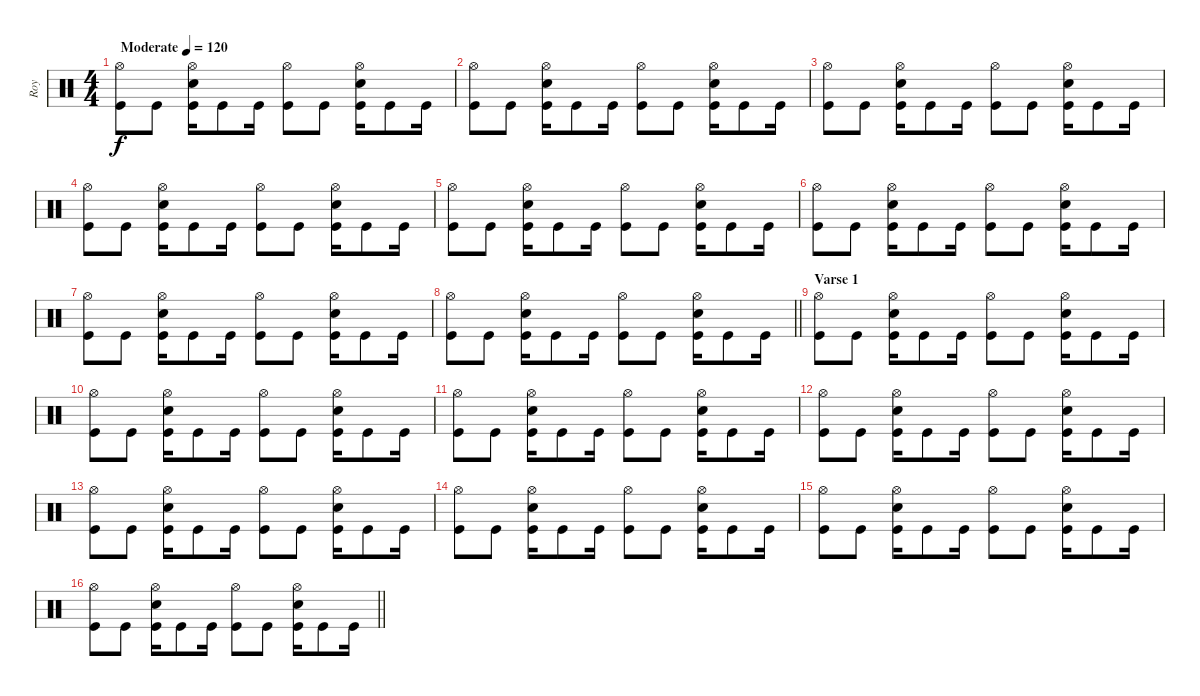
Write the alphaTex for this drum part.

\track ("Roy" "Roy") {instrument percussion}
\staff {score}
\articulation defaults
\ts (4 4)
\tempo (120 "Moderate")
\clef neutral
\ks c
("Hi-Hat (open)" "Kick (hit)").8{dy f} "Kick (hit)".8 ("Hi-Hat (open)" "Electric Snare (hit)" "Kick (hit)").16 "Kick (hit)".8 "Kick (hit)".16 ("Hi-Hat (open)" "Kick (hit)").8 "Kick (hit)".8 ("Hi-Hat (open)" "Electric Snare (hit)" "Kick (hit)").16 "Kick (hit)".8 "Kick (hit)".16 |
("Hi-Hat (open)" "Kick (hit)").8 "Kick (hit)".8 ("Hi-Hat (open)" "Electric Snare (hit)" "Kick (hit)").16 "Kick (hit)".8 "Kick (hit)".16 ("Hi-Hat (open)" "Kick (hit)").8 "Kick (hit)".8 ("Hi-Hat (open)" "Electric Snare (hit)" "Kick (hit)").16 "Kick (hit)".8 "Kick (hit)".16 |
("Hi-Hat (open)" "Kick (hit)").8 "Kick (hit)".8 ("Hi-Hat (open)" "Electric Snare (hit)" "Kick (hit)").16 "Kick (hit)".8 "Kick (hit)".16 ("Hi-Hat (open)" "Kick (hit)").8 "Kick (hit)".8 ("Hi-Hat (open)" "Electric Snare (hit)" "Kick (hit)").16 "Kick (hit)".8 "Kick (hit)".16 |
("Hi-Hat (open)" "Kick (hit)").8 "Kick (hit)".8 ("Hi-Hat (open)" "Electric Snare (hit)" "Kick (hit)").16 "Kick (hit)".8 "Kick (hit)".16 ("Hi-Hat (open)" "Kick (hit)").8 "Kick (hit)".8 ("Hi-Hat (open)" "Electric Snare (hit)" "Kick (hit)").16 "Kick (hit)".8 "Kick (hit)".16 |
("Hi-Hat (open)" "Kick (hit)").8 "Kick (hit)".8 ("Hi-Hat (open)" "Electric Snare (hit)" "Kick (hit)").16 "Kick (hit)".8 "Kick (hit)".16 ("Hi-Hat (open)" "Kick (hit)").8 "Kick (hit)".8 ("Hi-Hat (open)" "Electric Snare (hit)" "Kick (hit)").16 "Kick (hit)".8 "Kick (hit)".16 |
("Hi-Hat (open)" "Kick (hit)").8 "Kick (hit)".8 ("Hi-Hat (open)" "Electric Snare (hit)" "Kick (hit)").16 "Kick (hit)".8 "Kick (hit)".16 ("Hi-Hat (open)" "Kick (hit)").8 "Kick (hit)".8 ("Hi-Hat (open)" "Electric Snare (hit)" "Kick (hit)").16 "Kick (hit)".8 "Kick (hit)".16 |
("Hi-Hat (open)" "Kick (hit)").8 "Kick (hit)".8 ("Hi-Hat (open)" "Electric Snare (hit)" "Kick (hit)").16 "Kick (hit)".8 "Kick (hit)".16 ("Hi-Hat (open)" "Kick (hit)").8 "Kick (hit)".8 ("Hi-Hat (open)" "Electric Snare (hit)" "Kick (hit)").16 "Kick (hit)".8 "Kick (hit)".16 |
\barLineRight lightlight
("Hi-Hat (open)" "Kick (hit)").8 "Kick (hit)".8 ("Hi-Hat (open)" "Electric Snare (hit)" "Kick (hit)").16 "Kick (hit)".8 "Kick (hit)".16 ("Hi-Hat (open)" "Kick (hit)").8 "Kick (hit)".8 ("Hi-Hat (open)" "Electric Snare (hit)" "Kick (hit)").16 "Kick (hit)".8 "Kick (hit)".16 |
\section ("" "Varse 1")
("Hi-Hat (open)" "Kick (hit)").8 "Kick (hit)".8 ("Hi-Hat (open)" "Electric Snare (hit)" "Kick (hit)").16 "Kick (hit)".8 "Kick (hit)".16 ("Hi-Hat (open)" "Kick (hit)").8 "Kick (hit)".8 ("Hi-Hat (open)" "Electric Snare (hit)" "Kick (hit)").16 "Kick (hit)".8 "Kick (hit)".16 |
("Hi-Hat (open)" "Kick (hit)").8 "Kick (hit)".8 ("Hi-Hat (open)" "Electric Snare (hit)" "Kick (hit)").16 "Kick (hit)".8 "Kick (hit)".16 ("Hi-Hat (open)" "Kick (hit)").8 "Kick (hit)".8 ("Hi-Hat (open)" "Electric Snare (hit)" "Kick (hit)").16 "Kick (hit)".8 "Kick (hit)".16 |
("Hi-Hat (open)" "Kick (hit)").8 "Kick (hit)".8 ("Hi-Hat (open)" "Electric Snare (hit)" "Kick (hit)").16 "Kick (hit)".8 "Kick (hit)".16 ("Hi-Hat (open)" "Kick (hit)").8 "Kick (hit)".8 ("Hi-Hat (open)" "Electric Snare (hit)" "Kick (hit)").16 "Kick (hit)".8 "Kick (hit)".16 |
("Hi-Hat (open)" "Kick (hit)").8 "Kick (hit)".8 ("Hi-Hat (open)" "Electric Snare (hit)" "Kick (hit)").16 "Kick (hit)".8 "Kick (hit)".16 ("Hi-Hat (open)" "Kick (hit)").8 "Kick (hit)".8 ("Hi-Hat (open)" "Electric Snare (hit)" "Kick (hit)").16 "Kick (hit)".8 "Kick (hit)".16 |
("Hi-Hat (open)" "Kick (hit)").8 "Kick (hit)".8 ("Hi-Hat (open)" "Electric Snare (hit)" "Kick (hit)").16 "Kick (hit)".8 "Kick (hit)".16 ("Hi-Hat (open)" "Kick (hit)").8 "Kick (hit)".8 ("Hi-Hat (open)" "Electric Snare (hit)" "Kick (hit)").16 "Kick (hit)".8 "Kick (hit)".16 |
("Hi-Hat (open)" "Kick (hit)").8 "Kick (hit)".8 ("Hi-Hat (open)" "Electric Snare (hit)" "Kick (hit)").16 "Kick (hit)".8 "Kick (hit)".16 ("Hi-Hat (open)" "Kick (hit)").8 "Kick (hit)".8 ("Hi-Hat (open)" "Electric Snare (hit)" "Kick (hit)").16 "Kick (hit)".8 "Kick (hit)".16 |
("Hi-Hat (open)" "Kick (hit)").8 "Kick (hit)".8 ("Hi-Hat (open)" "Electric Snare (hit)" "Kick (hit)").16 "Kick (hit)".8 "Kick (hit)".16 ("Hi-Hat (open)" "Kick (hit)").8 "Kick (hit)".8 ("Hi-Hat (open)" "Electric Snare (hit)" "Kick (hit)").16 "Kick (hit)".8 "Kick (hit)".16 |
\barLineRight lightlight
("Hi-Hat (open)" "Kick (hit)").8 "Kick (hit)".8 ("Hi-Hat (open)" "Electric Snare (hit)" "Kick (hit)").16 "Kick (hit)".8 "Kick (hit)".16 ("Hi-Hat (open)" "Kick (hit)").8 "Kick (hit)".8 ("Hi-Hat (open)" "Electric Snare (hit)" "Kick (hit)").16 "Kick (hit)".8 "Kick (hit)".16
